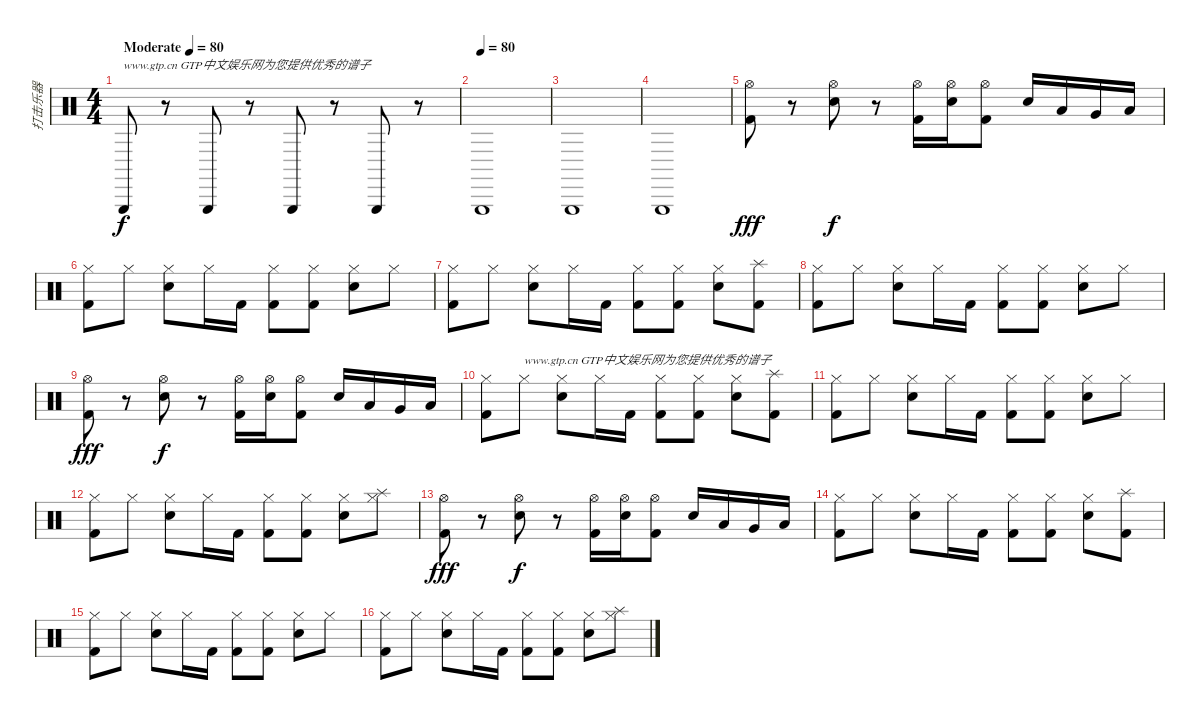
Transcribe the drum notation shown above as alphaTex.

\track ("打击乐器" "打击乐器") {instrument percussion}
\staff {score}
\articulation defaults
\ts (4 4)
\tempo (80 "Moderate")
\clef neutral
\ks c "Triangle (hit)".8{txt "www.gtp.cn GTP中文娱乐网为您提供优秀的谱子" dy f}
r.8 "Triangle (hit)".8 r.8 "Triangle (hit)".8 r.8 "Triangle (hit)".8 r.8 |
\tempo (80)
"Triangle (hit)".1 |
"Triangle (hit)".1 |
"Triangle (hit)".1 |
("Hi-Hat (open)" "Kick (hit) 2").8{dy fff} r.8 ("Hi-Hat (open)" "Electric Snare (hit)").8{dy f} r.8 ("Hi-Hat (open)" "Kick (hit) 2").16 ("Hi-Hat (open)" "Electric Snare (hit)").16 ("Hi-Hat (open)" "Kick (hit) 2").8 "Electric Snare (hit)".16 "Low Tom (hit)".16 "Very Low Tom (hit)".16 "Low Floor Tom (hit)".16 |
("Kick (hit) 2" "Hi-Hat (closed)").8 "Hi-Hat (closed)".8 ("Electric Snare (hit)" "Hi-Hat (closed)").8 "Hi-Hat (closed)".16 "Kick (hit) 2".16 ("Kick (hit) 2" "Hi-Hat (closed)").8 ("Kick (hit) 2" "Hi-Hat (closed)").8 ("Electric Snare (hit)" "Hi-Hat (closed)").8 "Hi-Hat (closed)".8 |
("Kick (hit) 2" "Hi-Hat (closed)").8 "Hi-Hat (closed)".8 ("Electric Snare (hit)" "Hi-Hat (closed)").8 "Hi-Hat (closed)".16 "Kick (hit) 2".16 ("Kick (hit) 2" "Hi-Hat (closed)").8 ("Kick (hit) 2" "Hi-Hat (closed)").8 ("Electric Snare (hit)" "Hi-Hat (closed)").8 ("Kick (hit) 2" "Splash (hit)").8 |
("Kick (hit) 2" "Hi-Hat (closed)").8 "Hi-Hat (closed)".8 ("Electric Snare (hit)" "Hi-Hat (closed)").8 "Hi-Hat (closed)".16 "Kick (hit) 2".16 ("Kick (hit) 2" "Hi-Hat (closed)").8 ("Kick (hit) 2" "Hi-Hat (closed)").8 ("Electric Snare (hit)" "Hi-Hat (closed)").8 "Hi-Hat (closed)".8 |
("Hi-Hat (open)" "Kick (hit) 2").8{dy fff} r.8 ("Hi-Hat (open)" "Electric Snare (hit)").8{dy f} r.8 ("Hi-Hat (open)" "Kick (hit) 2").16 ("Hi-Hat (open)" "Electric Snare (hit)").16 ("Hi-Hat (open)" "Kick (hit) 2").8 "Electric Snare (hit)".16 "Low Tom (hit)".16 "Very Low Tom (hit)".16 "Low Floor Tom (hit)".16 |
("Kick (hit) 2" "Hi-Hat (closed)").8 "Hi-Hat (closed)".8{txt "www.gtp.cn GTP中文娱乐网为您提供优秀的谱子"} ("Electric Snare (hit)" "Hi-Hat (closed)").8 "Hi-Hat (closed)".16 "Kick (hit) 2".16 ("Kick (hit) 2" "Hi-Hat (closed)").8 ("Kick (hit) 2" "Hi-Hat (closed)").8 ("Electric Snare (hit)" "Hi-Hat (closed)").8 ("Kick (hit) 2" "Splash (hit)").8 |
("Kick (hit) 2" "Hi-Hat (closed)").8 "Hi-Hat (closed)".8 ("Electric Snare (hit)" "Hi-Hat (closed)").8 "Hi-Hat (closed)".16 "Kick (hit) 2".16 ("Kick (hit) 2" "Hi-Hat (closed)").8 ("Kick (hit) 2" "Hi-Hat (closed)").8 ("Electric Snare (hit)" "Hi-Hat (closed)").8 "Hi-Hat (closed)".8 |
("Kick (hit) 2" "Hi-Hat (closed)").8 "Hi-Hat (closed)".8 ("Electric Snare (hit)" "Hi-Hat (closed)").8 "Hi-Hat (closed)".16 "Kick (hit) 2".16 ("Kick (hit) 2" "Hi-Hat (closed)").8 ("Kick (hit) 2" "Hi-Hat (closed)").8 ("Electric Snare (hit)" "Hi-Hat (closed)").8 ("Splash (hit)" "Hi-Hat (closed)").8 |
("Hi-Hat (open)" "Kick (hit) 2").8{dy fff} r.8 ("Hi-Hat (open)" "Electric Snare (hit)").8{dy f} r.8 ("Hi-Hat (open)" "Kick (hit) 2").16 ("Hi-Hat (open)" "Electric Snare (hit)").16 ("Hi-Hat (open)" "Kick (hit) 2").8 "Electric Snare (hit)".16 "Low Tom (hit)".16 "Very Low Tom (hit)".16 "Low Floor Tom (hit)".16 |
("Kick (hit) 2" "Hi-Hat (closed)").8 "Hi-Hat (closed)".8 ("Electric Snare (hit)" "Hi-Hat (closed)").8 "Hi-Hat (closed)".16 "Kick (hit) 2".16 ("Kick (hit) 2" "Hi-Hat (closed)").8 ("Kick (hit) 2" "Hi-Hat (closed)").8 ("Electric Snare (hit)" "Hi-Hat (closed)").8 ("Kick (hit) 2" "Splash (hit)").8 |
("Kick (hit) 2" "Hi-Hat (closed)").8 "Hi-Hat (closed)".8 ("Electric Snare (hit)" "Hi-Hat (closed)").8 "Hi-Hat (closed)".16 "Kick (hit) 2".16 ("Kick (hit) 2" "Hi-Hat (closed)").8 ("Kick (hit) 2" "Hi-Hat (closed)").8 ("Electric Snare (hit)" "Hi-Hat (closed)").8 "Hi-Hat (closed)".8 |
("Kick (hit) 2" "Hi-Hat (closed)").8 "Hi-Hat (closed)".8 ("Electric Snare (hit)" "Hi-Hat (closed)").8 "Hi-Hat (closed)".16 "Kick (hit) 2".16 ("Kick (hit) 2" "Hi-Hat (closed)").8 ("Kick (hit) 2" "Hi-Hat (closed)").8 ("Electric Snare (hit)" "Hi-Hat (closed)").8 ("Splash (hit)" "Hi-Hat (closed)").8
